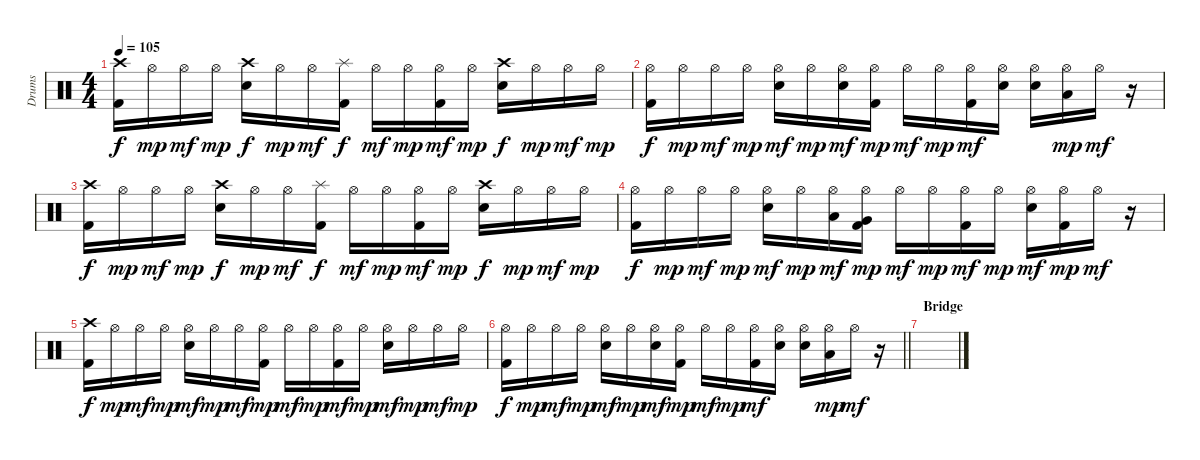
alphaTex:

\track ("Drums" "Drums") {instrument percussion}
\staff {score}
\articulation defaults
\ts (4 4)
\tempo 105
\clef neutral
\ks c
("Crash high (hit)" "Kick (hit) 2").16{dy f} "Hi-Hat (open)".16{dy mp} "Hi-Hat (open)".16{dy mf} "Hi-Hat (open)".16{dy mp} ("Electric Snare (hit)" "Crash high (hit)").16{dy f} "Hi-Hat (open)".16{dy mp} "Hi-Hat (open)".16{dy mf} ("Kick (hit) 2" "Splash (hit)").16{dy f} "Hi-Hat (open)".16{dy mf} "Hi-Hat (open)".16{dy mp} ("Hi-Hat (open)" "Kick (hit) 2").16{dy mf} "Hi-Hat (open)".16{dy mp} ("Crash high (hit)" "Electric Snare (hit)").16{dy f} "Hi-Hat (open)".16{dy mp} "Hi-Hat (open)".16{dy mf} "Hi-Hat (open)".16{dy mp} |
("Hi-Hat (open)" "Kick (hit) 2").16{dy f} "Hi-Hat (open)".16{dy mp} "Hi-Hat (open)".16{dy mf} "Hi-Hat (open)".16{dy mp} ("Hi-Hat (open)" "Electric Snare (hit)").16{dy mf} "Hi-Hat (open)".16{dy mp} ("Hi-Hat (open)" "Electric Snare (hit)").16{dy mf} ("Hi-Hat (open)" "Kick (hit) 2").16{dy mp} "Hi-Hat (open)".16{dy mf} "Hi-Hat (open)".16{dy mp} ("Hi-Hat (open)" "Kick (hit) 2").16{dy mf} ("Hi-Hat (open)" "Electric Snare (hit)").16 ("Hi-Hat (open)" "Electric Snare (hit)").16 ("Hi-Hat (open)" "Low Tom (hit)").16{dy mp} "Hi-Hat (open)".16{dy mf} r.16 |
("Crash high (hit)" "Kick (hit) 2").16{dy f} "Hi-Hat (open)".16{dy mp} "Hi-Hat (open)".16{dy mf} "Hi-Hat (open)".16{dy mp} ("Electric Snare (hit)" "Crash high (hit)").16{dy f} "Hi-Hat (open)".16{dy mp} "Hi-Hat (open)".16{dy mf} ("Kick (hit) 2" "Splash (hit)").16{dy f} "Hi-Hat (open)".16{dy mf} "Hi-Hat (open)".16{dy mp} ("Hi-Hat (open)" "Kick (hit) 2").16{dy mf} "Hi-Hat (open)".16{dy mp} ("Crash high (hit)" "Electric Snare (hit)").16{dy f} "Hi-Hat (open)".16{dy mp} "Hi-Hat (open)".16{dy mf} "Hi-Hat (open)".16{dy mp} |
("Hi-Hat (open)" "Kick (hit) 2").16{dy f} "Hi-Hat (open)".16{dy mp} "Hi-Hat (open)".16{dy mf} "Hi-Hat (open)".16{dy mp} ("Hi-Hat (open)" "Electric Snare (hit)").16{dy mf} "Hi-Hat (open)".16{dy mp} ("Hi-Hat (open)" "Low Tom (hit)").16{dy mf} ("Hi-Hat (open)" "Kick (hit) 2" "Very Low Tom (hit)").16{dy mp} "Hi-Hat (open)".16{dy mf} "Hi-Hat (open)".16{dy mp} ("Hi-Hat (open)" "Kick (hit) 2").16{dy mf} "Hi-Hat (open)".16{dy mp} ("Hi-Hat (open)" "Electric Snare (hit)").16{dy mf} ("Hi-Hat (open)" "Kick (hit) 2").16{dy mp} "Hi-Hat (open)".16{dy mf} r.16 |
("Crash high (hit)" "Kick (hit) 2").16{dy f} "Hi-Hat (open)".16{dy mp} "Hi-Hat (open)".16{dy mf} "Hi-Hat (open)".16{dy mp} ("Hi-Hat (open)" "Electric Snare (hit)").16{dy mf} "Hi-Hat (open)".16{dy mp} "Hi-Hat (open)".16{dy mf} ("Hi-Hat (open)" "Kick (hit) 2").16{dy mp} "Hi-Hat (open)".16{dy mf} "Hi-Hat (open)".16{dy mp} ("Hi-Hat (open)" "Kick (hit) 2").16{dy mf} "Hi-Hat (open)".16{dy mp} ("Hi-Hat (open)" "Electric Snare (hit)").16{dy mf} "Hi-Hat (open)".16{dy mp} "Hi-Hat (open)".16{dy mf} "Hi-Hat (open)".16{dy mp} |
\barLineRight lightlight
("Hi-Hat (open)" "Kick (hit) 2").16{dy f} "Hi-Hat (open)".16{dy mp} "Hi-Hat (open)".16{dy mf} "Hi-Hat (open)".16{dy mp} ("Hi-Hat (open)" "Electric Snare (hit)").16{dy mf} "Hi-Hat (open)".16{dy mp} ("Hi-Hat (open)" "Electric Snare (hit)").16{dy mf} ("Hi-Hat (open)" "Kick (hit) 2").16{dy mp} "Hi-Hat (open)".16{dy mf} "Hi-Hat (open)".16{dy mp} ("Hi-Hat (open)" "Kick (hit) 2").16{dy mf} ("Hi-Hat (open)" "Electric Snare (hit)").16 ("Hi-Hat (open)" "Electric Snare (hit)").16 ("Hi-Hat (open)" "Low Tom (hit)").16{dy mp} "Hi-Hat (open)".16{dy mf} r.16 |
\section ("" "Bridge")
